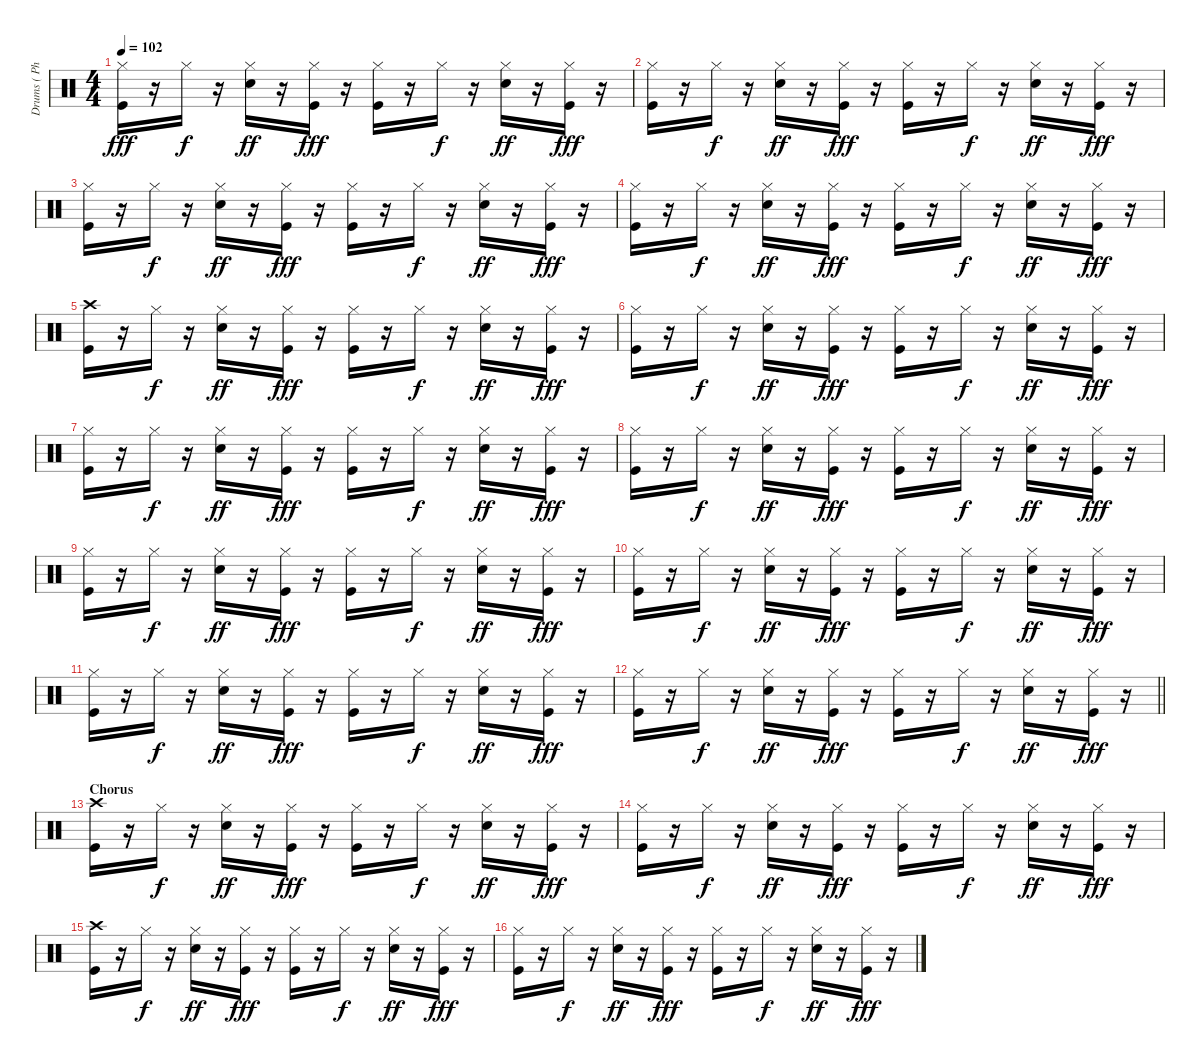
\track ("Drums ( Phillip Selway )" "Drums ( Ph") {instrument percussion}
\staff {score}
\articulation defaults
\ts (4 4)
\tempo 102
\clef neutral
\ks c
("Hi-Hat (closed)" "Kick (hit)").16{dy fff} r.16 "Hi-Hat (closed)".16{dy f} r.16 ("Hi-Hat (closed)" "Electric Snare (hit)").16{dy ff} r.16 ("Hi-Hat (closed)" "Kick (hit)").16{dy fff} r.16 ("Hi-Hat (closed)" "Kick (hit)").16 r.16 "Hi-Hat (closed)".16{dy f} r.16 ("Hi-Hat (closed)" "Electric Snare (hit)").16{dy ff} r.16 ("Hi-Hat (closed)" "Kick (hit)").16{dy fff} r.16 |
("Hi-Hat (closed)" "Kick (hit)").16 r.16 "Hi-Hat (closed)".16{dy f} r.16 ("Hi-Hat (closed)" "Electric Snare (hit)").16{dy ff} r.16 ("Hi-Hat (closed)" "Kick (hit)").16{dy fff} r.16 ("Hi-Hat (closed)" "Kick (hit)").16 r.16 "Hi-Hat (closed)".16{dy f} r.16 ("Hi-Hat (closed)" "Electric Snare (hit)").16{dy ff} r.16 ("Hi-Hat (closed)" "Kick (hit)").16{dy fff} r.16 |
("Hi-Hat (closed)" "Kick (hit)").16 r.16 "Hi-Hat (closed)".16{dy f} r.16 ("Hi-Hat (closed)" "Electric Snare (hit)").16{dy ff} r.16 ("Hi-Hat (closed)" "Kick (hit)").16{dy fff} r.16 ("Hi-Hat (closed)" "Kick (hit)").16 r.16 "Hi-Hat (closed)".16{dy f} r.16 ("Hi-Hat (closed)" "Electric Snare (hit)").16{dy ff} r.16 ("Hi-Hat (closed)" "Kick (hit)").16{dy fff} r.16 |
("Hi-Hat (closed)" "Kick (hit)").16 r.16 "Hi-Hat (closed)".16{dy f} r.16 ("Hi-Hat (closed)" "Electric Snare (hit)").16{dy ff} r.16 ("Hi-Hat (closed)" "Kick (hit)").16{dy fff} r.16 ("Hi-Hat (closed)" "Kick (hit)").16 r.16 "Hi-Hat (closed)".16{dy f} r.16 ("Hi-Hat (closed)" "Electric Snare (hit)").16{dy ff} r.16 ("Hi-Hat (closed)" "Kick (hit)").16{dy fff} r.16 |
("Crash high (hit)" "Kick (hit)").16 r.16 "Hi-Hat (closed)".16{dy f} r.16 ("Hi-Hat (closed)" "Electric Snare (hit)").16{dy ff} r.16 ("Hi-Hat (closed)" "Kick (hit)").16{dy fff} r.16 ("Hi-Hat (closed)" "Kick (hit)").16 r.16 "Hi-Hat (closed)".16{dy f} r.16 ("Hi-Hat (closed)" "Electric Snare (hit)").16{dy ff} r.16 ("Hi-Hat (closed)" "Kick (hit)").16{dy fff} r.16 |
("Hi-Hat (closed)" "Kick (hit)").16 r.16 "Hi-Hat (closed)".16{dy f} r.16 ("Hi-Hat (closed)" "Electric Snare (hit)").16{dy ff} r.16 ("Hi-Hat (closed)" "Kick (hit)").16{dy fff} r.16 ("Hi-Hat (closed)" "Kick (hit)").16 r.16 "Hi-Hat (closed)".16{dy f} r.16 ("Hi-Hat (closed)" "Electric Snare (hit)").16{dy ff} r.16 ("Hi-Hat (closed)" "Kick (hit)").16{dy fff} r.16 |
("Hi-Hat (closed)" "Kick (hit)").16 r.16 "Hi-Hat (closed)".16{dy f} r.16 ("Hi-Hat (closed)" "Electric Snare (hit)").16{dy ff} r.16 ("Hi-Hat (closed)" "Kick (hit)").16{dy fff} r.16 ("Hi-Hat (closed)" "Kick (hit)").16 r.16 "Hi-Hat (closed)".16{dy f} r.16 ("Hi-Hat (closed)" "Electric Snare (hit)").16{dy ff} r.16 ("Hi-Hat (closed)" "Kick (hit)").16{dy fff} r.16 |
("Hi-Hat (closed)" "Kick (hit)").16 r.16 "Hi-Hat (closed)".16{dy f} r.16 ("Hi-Hat (closed)" "Electric Snare (hit)").16{dy ff} r.16 ("Hi-Hat (closed)" "Kick (hit)").16{dy fff} r.16 ("Hi-Hat (closed)" "Kick (hit)").16 r.16 "Hi-Hat (closed)".16{dy f} r.16 ("Hi-Hat (closed)" "Electric Snare (hit)").16{dy ff} r.16 ("Hi-Hat (closed)" "Kick (hit)").16{dy fff} r.16 |
("Hi-Hat (closed)" "Kick (hit)").16 r.16 "Hi-Hat (closed)".16{dy f} r.16 ("Hi-Hat (closed)" "Electric Snare (hit)").16{dy ff} r.16 ("Hi-Hat (closed)" "Kick (hit)").16{dy fff} r.16 ("Hi-Hat (closed)" "Kick (hit)").16 r.16 "Hi-Hat (closed)".16{dy f} r.16 ("Hi-Hat (closed)" "Electric Snare (hit)").16{dy ff} r.16 ("Hi-Hat (closed)" "Kick (hit)").16{dy fff} r.16 |
("Hi-Hat (closed)" "Kick (hit)").16 r.16 "Hi-Hat (closed)".16{dy f} r.16 ("Hi-Hat (closed)" "Electric Snare (hit)").16{dy ff} r.16 ("Hi-Hat (closed)" "Kick (hit)").16{dy fff} r.16 ("Hi-Hat (closed)" "Kick (hit)").16 r.16 "Hi-Hat (closed)".16{dy f} r.16 ("Hi-Hat (closed)" "Electric Snare (hit)").16{dy ff} r.16 ("Hi-Hat (closed)" "Kick (hit)").16{dy fff} r.16 |
("Hi-Hat (closed)" "Kick (hit)").16 r.16 "Hi-Hat (closed)".16{dy f} r.16 ("Hi-Hat (closed)" "Electric Snare (hit)").16{dy ff} r.16 ("Hi-Hat (closed)" "Kick (hit)").16{dy fff} r.16 ("Hi-Hat (closed)" "Kick (hit)").16 r.16 "Hi-Hat (closed)".16{dy f} r.16 ("Hi-Hat (closed)" "Electric Snare (hit)").16{dy ff} r.16 ("Hi-Hat (closed)" "Kick (hit)").16{dy fff} r.16 |
\barLineRight lightlight
("Hi-Hat (closed)" "Kick (hit)").16 r.16 "Hi-Hat (closed)".16{dy f} r.16 ("Hi-Hat (closed)" "Electric Snare (hit)").16{dy ff} r.16 ("Hi-Hat (closed)" "Kick (hit)").16{dy fff} r.16 ("Hi-Hat (closed)" "Kick (hit)").16 r.16 "Hi-Hat (closed)".16{dy f} r.16 ("Hi-Hat (closed)" "Electric Snare (hit)").16{dy ff} r.16 ("Hi-Hat (closed)" "Kick (hit)").16{dy fff} r.16 |
\section ("" "Chorus")
("Crash high (hit)" "Kick (hit)").16 r.16 "Hi-Hat (closed)".16{dy f} r.16 ("Hi-Hat (closed)" "Electric Snare (hit)").16{dy ff} r.16 ("Hi-Hat (closed)" "Kick (hit)").16{dy fff} r.16 ("Hi-Hat (closed)" "Kick (hit)").16 r.16 "Hi-Hat (closed)".16{dy f} r.16 ("Hi-Hat (closed)" "Electric Snare (hit)").16{dy ff} r.16 ("Hi-Hat (closed)" "Kick (hit)").16{dy fff} r.16 |
("Hi-Hat (closed)" "Kick (hit)").16 r.16 "Hi-Hat (closed)".16{dy f} r.16 ("Hi-Hat (closed)" "Electric Snare (hit)").16{dy ff} r.16 ("Hi-Hat (closed)" "Kick (hit)").16{dy fff} r.16 ("Hi-Hat (closed)" "Kick (hit)").16 r.16 "Hi-Hat (closed)".16{dy f} r.16 ("Hi-Hat (closed)" "Electric Snare (hit)").16{dy ff} r.16 ("Hi-Hat (closed)" "Kick (hit)").16{dy fff} r.16 |
("Crash high (hit)" "Kick (hit)").16 r.16 "Hi-Hat (closed)".16{dy f} r.16 ("Hi-Hat (closed)" "Electric Snare (hit)").16{dy ff} r.16 ("Hi-Hat (closed)" "Kick (hit)").16{dy fff} r.16 ("Hi-Hat (closed)" "Kick (hit)").16 r.16 "Hi-Hat (closed)".16{dy f} r.16 ("Hi-Hat (closed)" "Electric Snare (hit)").16{dy ff} r.16 ("Hi-Hat (closed)" "Kick (hit)").16{dy fff} r.16 |
("Hi-Hat (closed)" "Kick (hit)").16 r.16 "Hi-Hat (closed)".16{dy f} r.16 ("Hi-Hat (closed)" "Electric Snare (hit)").16{dy ff} r.16 ("Hi-Hat (closed)" "Kick (hit)").16{dy fff} r.16 ("Hi-Hat (closed)" "Kick (hit)").16 r.16 "Hi-Hat (closed)".16{dy f} r.16 ("Hi-Hat (closed)" "Electric Snare (hit)").16{dy ff} r.16 ("Hi-Hat (closed)" "Kick (hit)").16{dy fff} r.16
